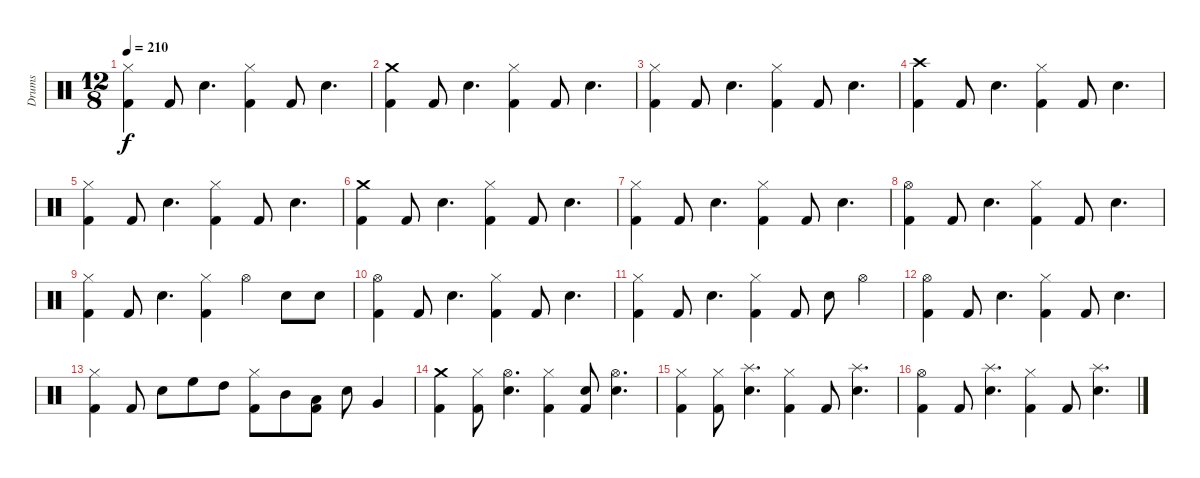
\track ("Drums" "Drums") {instrument percussion}
\staff {score}
\articulation defaults
\ts (12 8)
\tempo 210
\clef neutral
\ks c
("Kick (hit) 2" "Hi-Hat (closed)").4{dy f} "Kick (hit) 2".8 "Snare (hit) 2".4{d} ("Kick (hit) 2" "Hi-Hat (closed)").4 "Kick (hit) 2".8 "Snare (hit) 2".4{d} |
("Kick (hit) 2" "Crash medium (hit)").4 "Kick (hit) 2".8 "Snare (hit) 2".4{d} ("Kick (hit) 2" "Hi-Hat (closed)").4 "Kick (hit) 2".8 "Snare (hit) 2".4{d} |
("Kick (hit) 2" "Hi-Hat (closed)").4 "Kick (hit) 2".8 "Snare (hit) 2".4{d} ("Kick (hit) 2" "Hi-Hat (closed)").4 "Kick (hit) 2".8 "Snare (hit) 2".4{d} |
("Kick (hit) 2" "Crash high (hit)").4 "Kick (hit) 2".8 "Snare (hit) 2".4{d} ("Kick (hit) 2" "Hi-Hat (closed)").4 "Kick (hit) 2".8 "Snare (hit) 2".4{d} |
("Kick (hit) 2" "Hi-Hat (closed)").4 "Kick (hit) 2".8 "Snare (hit) 2".4{d} ("Kick (hit) 2" "Hi-Hat (closed)").4 "Kick (hit) 2".8 "Snare (hit) 2".4{d} |
("Kick (hit) 2" "Crash medium (hit)").4 "Kick (hit) 2".8 "Snare (hit) 2".4{d} ("Kick (hit) 2" "Hi-Hat (closed)").4 "Kick (hit) 2".8 "Snare (hit) 2".4{d} |
("Kick (hit) 2" "Hi-Hat (closed)").4 "Kick (hit) 2".8 "Snare (hit) 2".4{d} ("Kick (hit) 2" "Hi-Hat (closed)").4 "Kick (hit) 2".8 "Snare (hit) 2".4{d} |
("Kick (hit) 2" "Hi-Hat (open)").4 "Kick (hit) 2".8 "Snare (hit) 2".4{d} ("Kick (hit) 2" "Hi-Hat (closed)").4 "Kick (hit) 2".8 "Snare (hit) 2".4{d} |
("Kick (hit) 2" "Hi-Hat (closed)").4 "Kick (hit) 2".8 "Snare (hit) 2".4{d} ("Kick (hit) 2" "Hi-Hat (closed)").4 "Hi-Hat (open)".4 "Snare (hit) 2".8 "Snare (hit) 2".8 |
("Kick (hit) 2" "Hi-Hat (open)").4 "Kick (hit) 2".8 "Snare (hit) 2".4{d} ("Kick (hit) 2" "Hi-Hat (closed)").4 "Kick (hit) 2".8 "Snare (hit) 2".4{d} |
("Kick (hit) 2" "Hi-Hat (closed)").4 "Kick (hit) 2".8 "Snare (hit) 2".4{d} ("Kick (hit) 2" "Hi-Hat (closed)").4 "Kick (hit) 2".8 "Snare (hit) 2".8 "Hi-Hat (open)".4 |
("Kick (hit) 2" "Hi-Hat (open)").4 "Kick (hit) 2".8 "Snare (hit) 2".4{d} ("Kick (hit) 2" "Hi-Hat (closed)").4 "Kick (hit) 2".8 "Snare (hit) 2".4{d} |
("Kick (hit) 2" "Hi-Hat (closed)").4 "Kick (hit) 2".8 "Snare (hit) 2".8 "High Floor Tom (hit)".8 "High Tom (hit)".8 ("Kick (hit) 2" "Hi-Hat (closed)").8 "Mid Tom (hit)".8 ("Kick (hit) 2" "Low Tom (hit)").8 "Snare (hit) 2".8 "Very Low Tom (hit)".4 |
("Kick (hit) 2" "Crash medium (hit)").4 ("Kick (hit) 2" "Hi-Hat (closed)").8 ("Snare (hit) 2" "Hi-Hat (open)").4{d} ("Kick (hit) 2" "Hi-Hat (closed)").4 ("Kick (hit) 2" "Snare (hit)").8 ("Snare (hit) 2" "Hi-Hat (open)").4{d} |
("Kick (hit) 2" "Hi-Hat (closed)").4 ("Kick (hit) 2" "Hi-Hat (closed)").8 ("Snare (hit) 2" "Splash (hit)").4{d} ("Kick (hit) 2" "Hi-Hat (closed)").4 "Kick (hit) 2".8 ("Snare (hit) 2" "Splash (hit)").4{d} |
("Kick (hit) 2" "Hi-Hat (open)").4 "Kick (hit) 2".8 ("Snare (hit) 2" "Splash (hit)").4{d} ("Kick (hit) 2" "Hi-Hat (closed)").4 "Kick (hit) 2".8 ("Snare (hit) 2" "Splash (hit)").4{d}
